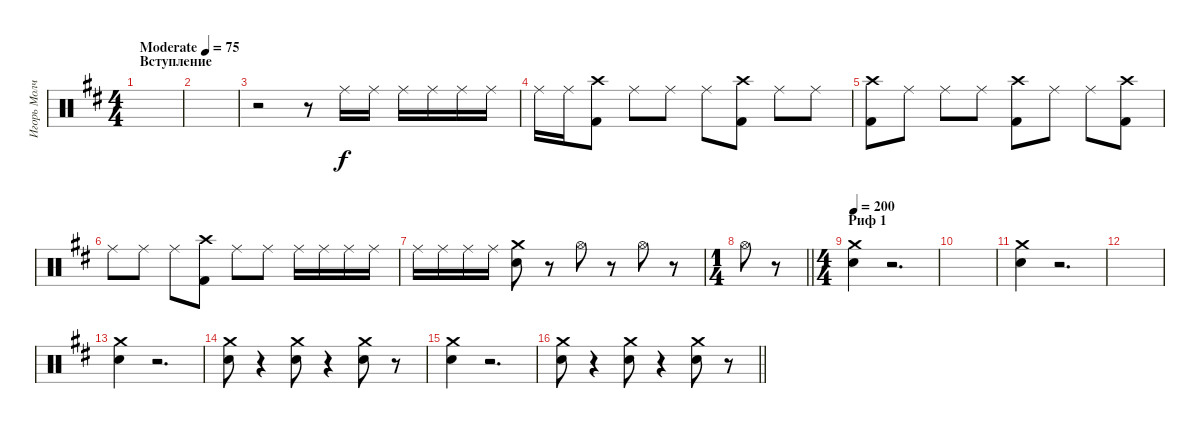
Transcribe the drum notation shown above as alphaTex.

\track ("Игорь Молчанов" "Игорь Молч") {instrument percussion}
\staff {score}
\articulation defaults
\ts (4 4)
\section ("" "Вступление")
\tempo (75 "Moderate")
\clef neutral
\ks d
|
|
r.2 r.8 "Ride (middle)".16 "Ride (middle)".16 "Ride (middle)".16 "Ride (middle)".16 "Ride (middle)".16 "Ride (middle)".16 |
"Ride (middle)".16 "Ride (middle)".16 ("Crash high (hit)" "Kick (hit) 2").8 "Ride (middle)".8 "Ride (middle)".8 "Ride (middle)".8 ("Crash high (hit)" "Kick (hit) 2").8 "Ride (middle)".8 "Ride (middle)".8 |
("Crash high (hit)" "Kick (hit) 2").8 "Ride (middle)".8 "Ride (middle)".8 "Ride (middle)".8 ("Crash high (hit)" "Kick (hit) 2").8 "Ride (middle)".8 "Ride (middle)".8 ("Crash high (hit)" "Kick (hit) 2").8 |
"Ride (middle)".8 "Ride (middle)".8 "Ride (middle)".8 ("Crash high (hit)" "Kick (hit) 2").8 "Ride (middle)".8 "Ride (middle)".8 "Ride (middle)".16 "Ride (middle)".16 "Ride (middle)".16 "Ride (middle)".16 |
"Ride (middle)".16 "Ride (middle)".16 "Ride (middle)".16 "Ride (middle)".16 ("Crash medium (hit)" "Snare (hit) 2").8 r.8 "Hi-Hat (open)".8 r.8 "Hi-Hat (open)".8 r.8 |
\ts (1 4)
\barLineRight lightlight "Hi-Hat (open)".8
r.8 |
\ts (4 4)
\section ("" "Риф 1")
\tempo 200
("Crash medium (hit)" "Snare (hit) 2").4 r.2{d} |
|
("Crash medium (hit)" "Snare (hit) 2").4 r.2{d} |
|
("Crash medium (hit)" "Snare (hit) 2").4 r.2{d} |
("Crash medium (hit)" "Snare (hit) 2").8 r.4 ("Crash medium (hit)" "Snare (hit) 2").8 r.4 ("Crash medium (hit)" "Snare (hit) 2").8 r.8 |
("Crash medium (hit)" "Snare (hit) 2").4 r.2{d} |
\barLineRight lightlight
("Crash medium (hit)" "Snare (hit) 2").8 r.4 ("Crash medium (hit)" "Snare (hit) 2").8 r.4 ("Crash medium (hit)" "Snare (hit) 2").8 r.8
